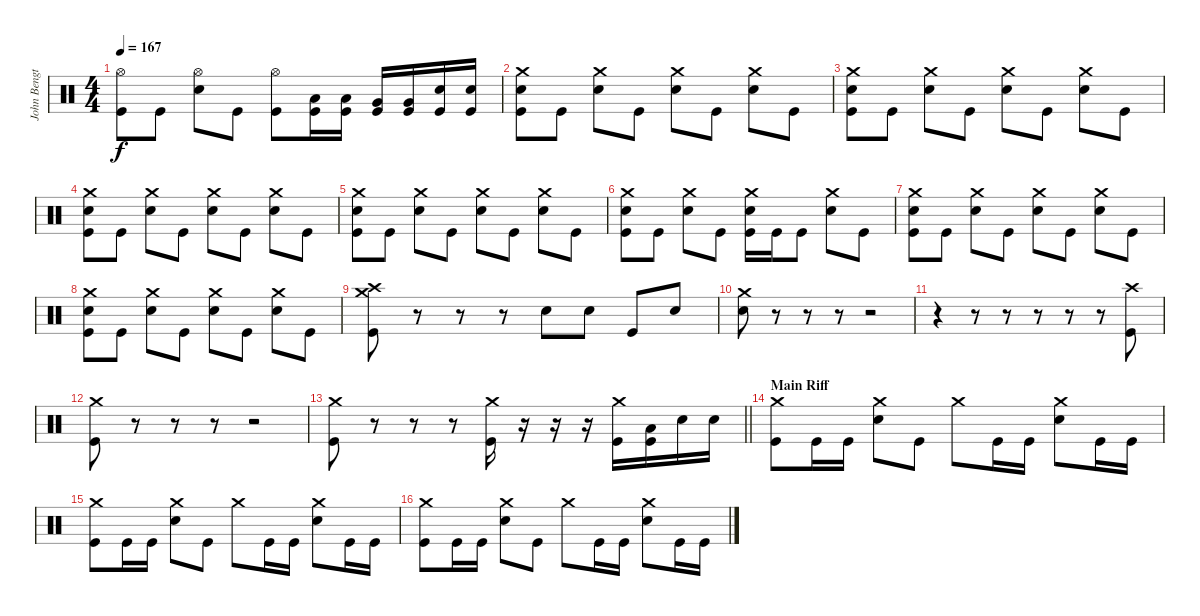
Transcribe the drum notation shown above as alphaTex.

\track ("John Bengtsson" "John Bengt") {instrument percussion}
\staff {score}
\articulation defaults
\ts (4 4)
\tempo 167
\clef neutral
\ks c
("Hi-Hat (open)" "Kick (hit)").8{dy f} "Kick (hit)".8 ("Hi-Hat (open)" "Snare (hit) 2").8 "Kick (hit)".8 ("Hi-Hat (open)" "Kick (hit)").8 ("Low Tom (hit)" "Kick (hit)").16 ("Low Tom (hit)" "Kick (hit)").16 ("Very Low Tom (hit)" "Kick (hit)").16 ("Very Low Tom (hit)" "Kick (hit)").16 ("Snare (hit) 2" "Kick (hit)").16 ("Snare (hit) 2" "Kick (hit)").16 |
("Crash medium (hit)" "Snare (hit) 2" "Kick (hit)").8 "Kick (hit)".8 ("Crash medium (hit)" "Snare (hit) 2").8 "Kick (hit)".8 ("Crash medium (hit)" "Snare (hit) 2").8 "Kick (hit)".8 ("Crash medium (hit)" "Snare (hit) 2").8 "Kick (hit)".8 |
("Crash medium (hit)" "Snare (hit) 2" "Kick (hit)").8 "Kick (hit)".8 ("Crash medium (hit)" "Snare (hit) 2").8 "Kick (hit)".8 ("Crash medium (hit)" "Snare (hit) 2").8 "Kick (hit)".8 ("Crash medium (hit)" "Snare (hit) 2").8 "Kick (hit)".8 |
("Crash medium (hit)" "Snare (hit) 2" "Kick (hit)").8 "Kick (hit)".8 ("Crash medium (hit)" "Snare (hit) 2").8 "Kick (hit)".8 ("Crash medium (hit)" "Snare (hit) 2").8 "Kick (hit)".8 ("Crash medium (hit)" "Snare (hit) 2").8 "Kick (hit)".8 |
("Crash medium (hit)" "Snare (hit) 2" "Kick (hit)").8 "Kick (hit)".8 ("Crash medium (hit)" "Snare (hit) 2").8 "Kick (hit)".8 ("Crash medium (hit)" "Snare (hit) 2").8 "Kick (hit)".8 ("Crash medium (hit)" "Snare (hit) 2").8 "Kick (hit)".8 |
("Crash medium (hit)" "Snare (hit) 2" "Kick (hit)").8 "Kick (hit)".8 ("Crash medium (hit)" "Snare (hit) 2").8 "Kick (hit)".8 ("Crash medium (hit)" "Snare (hit) 2" "Kick (hit)").16 "Kick (hit)".16 "Kick (hit)".8 ("Crash medium (hit)" "Snare (hit) 2").8 "Kick (hit)".8 |
("Crash medium (hit)" "Snare (hit) 2" "Kick (hit)").8 "Kick (hit)".8 ("Crash medium (hit)" "Snare (hit) 2").8 "Kick (hit)".8 ("Crash medium (hit)" "Snare (hit) 2").8 "Kick (hit)".8 ("Crash medium (hit)" "Snare (hit) 2").8 "Kick (hit)".8 |
("Crash medium (hit)" "Snare (hit) 2" "Kick (hit)").8 "Kick (hit)".8 ("Crash medium (hit)" "Snare (hit) 2").8 "Kick (hit)".8 ("Crash medium (hit)" "Snare (hit) 2").8 "Kick (hit)".8 ("Crash medium (hit)" "Snare (hit) 2").8 "Kick (hit)".8 |
("Crash medium (hit)" "Crash high (hit)" "Kick (hit)").8 r.8 r.8 r.8 "Snare (hit) 2".8 "Snare (hit) 2".8 "Kick (hit)".8 "Snare (hit) 2".8 |
("Crash medium (hit)" "Snare (hit) 2").8 r.8 r.8 r.8 r.2 |
r.4 r.8 r.8 r.8 r.8 r.8 ("Crash high (hit)" "Kick (hit)").8 |
("Crash medium (hit)" "Kick (hit)").8 r.8 r.8 r.8 r.2 |
\barLineRight lightlight
("Crash medium (hit)" "Kick (hit)").8 r.8 r.8 r.8 ("Crash medium (hit)" "Kick (hit)").16 r.16 r.16 r.16 ("Crash medium (hit)" "Kick (hit)").16 ("Low Tom (hit)" "Kick (hit)").16 "Snare (hit) 2".16 "Snare (hit) 2".16 |
\section ("" "Main Riff")
("Crash medium (hit)" "Kick (hit)").8 "Kick (hit)".16 "Kick (hit)".16 ("Crash medium (hit)" "Snare (hit) 2").8 "Kick (hit)".8 "Crash medium (hit)".8 "Kick (hit)".16 "Kick (hit)".16 ("Crash medium (hit)" "Snare (hit) 2").8 "Kick (hit)".16 "Kick (hit)".16 |
("Crash medium (hit)" "Kick (hit)").8 "Kick (hit)".16 "Kick (hit)".16 ("Crash medium (hit)" "Snare (hit) 2").8 "Kick (hit)".8 "Crash medium (hit)".8 "Kick (hit)".16 "Kick (hit)".16 ("Crash medium (hit)" "Snare (hit) 2").8 "Kick (hit)".16 "Kick (hit)".16 |
("Crash medium (hit)" "Kick (hit)").8 "Kick (hit)".16 "Kick (hit)".16 ("Crash medium (hit)" "Snare (hit) 2").8 "Kick (hit)".8 "Crash medium (hit)".8 "Kick (hit)".16 "Kick (hit)".16 ("Crash medium (hit)" "Snare (hit) 2").8 "Kick (hit)".16 "Kick (hit)".16
